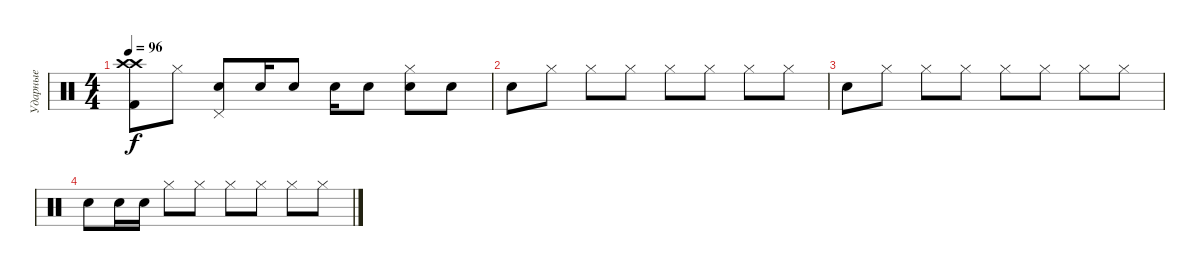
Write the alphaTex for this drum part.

\track ("Ударные" "Ударные") {instrument percussion}
\staff {score}
\articulation defaults
\ts (4 4)
\tempo 96
\clef neutral
\ks c
("Crash high (hit)" "Crash high (hit)" "Kick (hit) 2").8{dy f} "Hi-Hat (closed)".8 ("Electric Snare (hit)" "Pedal Hi-Hat (hit)").8 "Electric Snare (hit)".16 "Electric Snare (hit)".8 "Electric Snare (hit)".16 "Electric Snare (hit)".8 ("Electric Snare (hit)" "Hi-Hat (closed)").8 "Electric Snare (hit)".8 |
"Electric Snare (hit)".8 "Hi-Hat (closed)".8 "Hi-Hat (closed)".8 "Hi-Hat (closed)".8 "Hi-Hat (closed)".8 "Hi-Hat (closed)".8 "Hi-Hat (closed)".8 "Hi-Hat (closed)".8 |
"Electric Snare (hit)".8 "Hi-Hat (closed)".8 "Hi-Hat (closed)".8 "Hi-Hat (closed)".8 "Hi-Hat (closed)".8 "Hi-Hat (closed)".8 "Hi-Hat (closed)".8 "Hi-Hat (closed)".8 |
"Electric Snare (hit)".8 "Electric Snare (hit)".16 "Electric Snare (hit)".16 "Hi-Hat (closed)".8 "Hi-Hat (closed)".8 "Hi-Hat (closed)".8 "Hi-Hat (closed)".8 "Hi-Hat (closed)".8 "Hi-Hat (closed)".8
